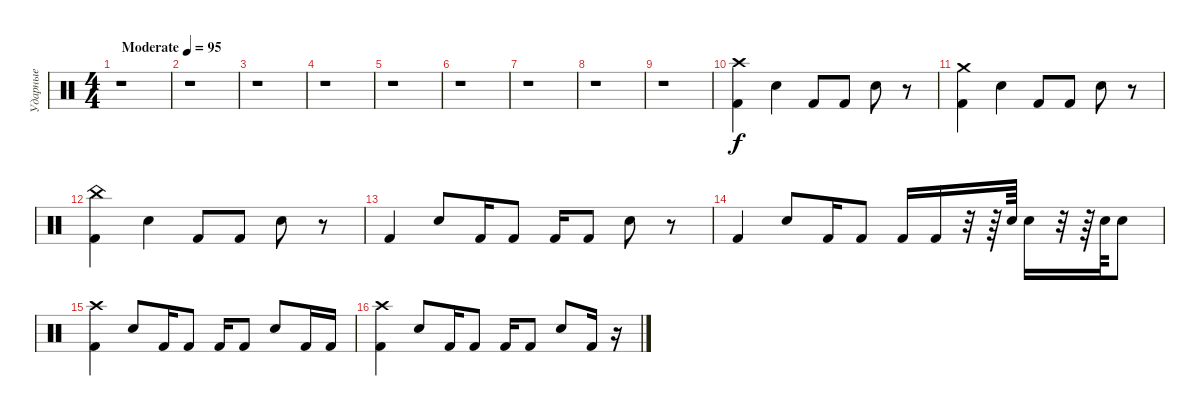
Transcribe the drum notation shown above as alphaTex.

\track ("Ударные" "Ударные") {instrument percussion}
\staff {score}
\articulation defaults
\ts (4 4)
\tempo (95 "Moderate")
\clef neutral
\ks c
r.1{dy f} |
r.1 |
r.1 |
r.1 |
r.1 |
r.1 |
r.1 |
r.1 |
r.1 |
("Crash high (hit)" "Kick (hit) 2").4 "Snare (hit) 2".4 "Kick (hit) 2".8 "Kick (hit) 2".8 "Snare (hit) 2".8 r.8 |
("Crash medium (hit)" "Kick (hit) 2").4 "Snare (hit) 2".4 "Kick (hit) 2".8 "Kick (hit) 2".8 "Snare (hit) 2".8 r.8 |
("China (hit)" "Kick (hit) 2").4 "Snare (hit) 2".4 "Kick (hit) 2".8 "Kick (hit) 2".8 "Snare (hit) 2".8 r.8 |
"Kick (hit) 2".4 "Snare (hit) 2".8 "Kick (hit) 2".16 "Kick (hit) 2".8 "Kick (hit) 2".16 "Kick (hit) 2".8 "Snare (hit) 2".8 r.8 |
"Kick (hit) 2".4 "Snare (hit) 2".8 "Kick (hit) 2".16 "Kick (hit) 2".8 "Kick (hit) 2".16 "Kick (hit) 2".16 r.32 r.64 "Electric Snare (hit)".64 "Snare (hit) 2".16 r.32 r.64 "Snare (hit) 2".64 "Electric Snare (hit)".8 |
("Crash high (hit)" "Kick (hit) 2").4 "Snare (hit) 2".8 "Kick (hit) 2".16 "Kick (hit) 2".8 "Kick (hit) 2".16 "Kick (hit) 2".8 "Snare (hit) 2".8 "Kick (hit) 2".16 "Kick (hit) 2".16 |
("Crash high (hit)" "Kick (hit) 2").4 "Snare (hit) 2".8 "Kick (hit) 2".16 "Kick (hit) 2".8 "Kick (hit) 2".16 "Kick (hit) 2".8 "Snare (hit) 2".8 "Kick (hit) 2".16 r.16
